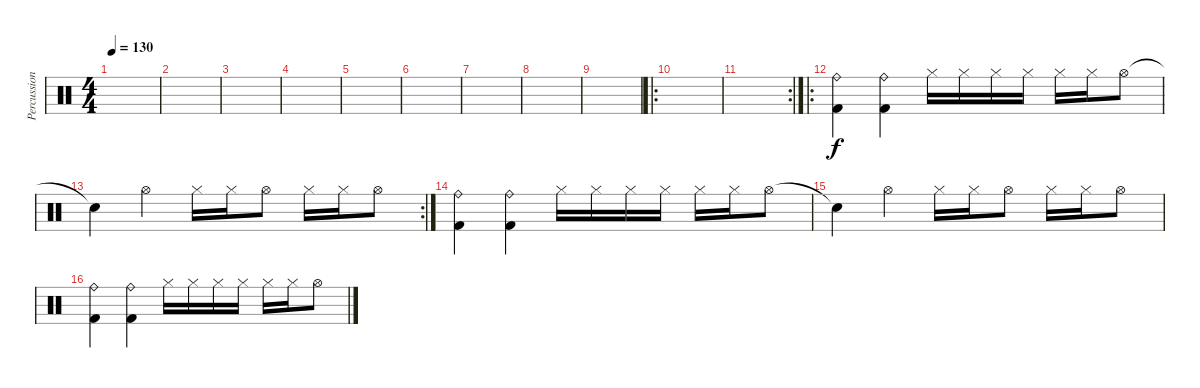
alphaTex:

\track ("Percussion" "Percussion") {instrument percussion}
\staff {score}
\articulation defaults
\ts (4 4)
\tempo 130
\clef neutral
\ks c
|
|
|
|
|
|
|
|
|
\ro
|
\rc 2
|
\ro
("Ride (bell)" "Kick (hit) 2").4 ("Ride (bell)" "Kick (hit) 2").4 "Hi-Hat (closed)".16 "Hi-Hat (closed)".16 "Hi-Hat (closed)".16 "Hi-Hat (closed)".16 "Hi-Hat (closed)".16 "Hi-Hat (closed)".16 "Hi-Hat (open)".8 |
\rc 2 "Snare (hit)"{t}.4 "Hi-Hat (open)".4 "Hi-Hat (closed)".16 "Hi-Hat (closed)".16 "Hi-Hat (open)".8 "Hi-Hat (closed)".16 "Hi-Hat (closed)".16 "Hi-Hat (open)".8
|
("Ride (bell)" "Kick (hit) 2").4 ("Ride (bell)" "Kick (hit) 2").4 "Hi-Hat (closed)".16 "Hi-Hat (closed)".16 "Hi-Hat (closed)".16 "Hi-Hat (closed)".16 "Hi-Hat (closed)".16 "Hi-Hat (closed)".16 "Hi-Hat (open)".8 |
"Snare (hit)"{t}.4 "Hi-Hat (open)".4 "Hi-Hat (closed)".16 "Hi-Hat (closed)".16 "Hi-Hat (open)".8 "Hi-Hat (closed)".16 "Hi-Hat (closed)".16 "Hi-Hat (open)".8 |
("Ride (bell)" "Kick (hit) 2").4 ("Ride (bell)" "Kick (hit) 2").4 "Hi-Hat (closed)".16 "Hi-Hat (closed)".16 "Hi-Hat (closed)".16 "Hi-Hat (closed)".16 "Hi-Hat (closed)".16 "Hi-Hat (closed)".16 "Hi-Hat (open)".8
